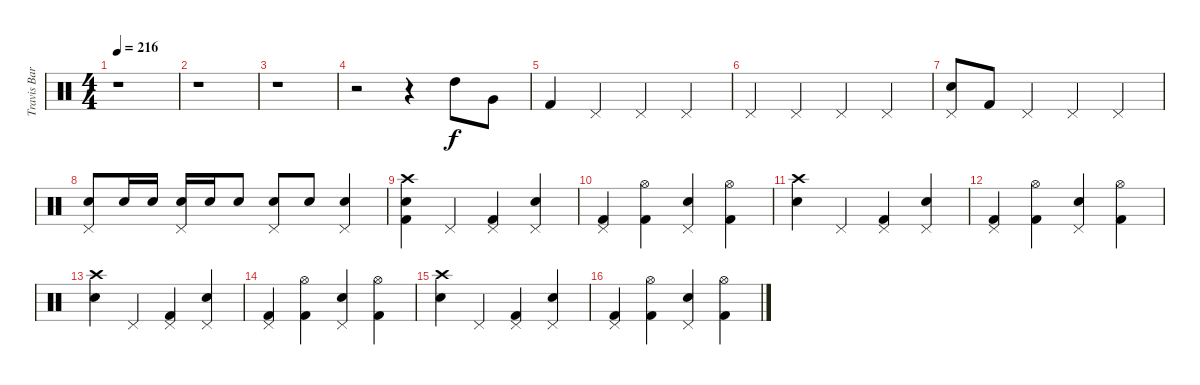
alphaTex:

\track ("Travis Barker (Drums)" "Travis Bar") {instrument percussion}
\staff {score}
\articulation defaults
\ts (4 4)
\tempo 216
\clef neutral
\ks c
r.1{dy f} |
r.1 |
r.1 |
r.2 r.4 "High Tom (hit)".8 "Very Low Tom (hit)".8 |
"Kick (hit) 2".4 "Pedal Hi-Hat (hit)".4 "Pedal Hi-Hat (hit)".4 "Pedal Hi-Hat (hit)".4 |
"Pedal Hi-Hat (hit)".4 "Pedal Hi-Hat (hit)".4 "Pedal Hi-Hat (hit)".4 "Pedal Hi-Hat (hit)".4 |
("Pedal Hi-Hat (hit)" "Electric Snare (hit)").8 "Kick (hit) 2".8 "Pedal Hi-Hat (hit)".4 "Pedal Hi-Hat (hit)".4 "Pedal Hi-Hat (hit)".4 |
("Pedal Hi-Hat (hit)" "Electric Snare (hit)").8 "Electric Snare (hit)".16 "Electric Snare (hit)".16 ("Pedal Hi-Hat (hit)" "Electric Snare (hit)").16 "Electric Snare (hit)".16 "Electric Snare (hit)".8 ("Pedal Hi-Hat (hit)" "Electric Snare (hit)").8 "Electric Snare (hit)".8 ("Pedal Hi-Hat (hit)" "Electric Snare (hit)").4 |
("Crash high (hit)" "Electric Snare (hit)" "Kick (hit) 2").4 "Pedal Hi-Hat (hit)".4 ("Pedal Hi-Hat (hit)" "Kick (hit) 2").4 ("Pedal Hi-Hat (hit)" "Electric Snare (hit)").4 |
("Pedal Hi-Hat (hit)" "Kick (hit) 2").4 ("Hi-Hat (open)" "Kick (hit) 2").4 ("Pedal Hi-Hat (hit)" "Electric Snare (hit)").4 ("Hi-Hat (open)" "Kick (hit) 2").4 |
("Crash high (hit)" "Electric Snare (hit)").4 "Pedal Hi-Hat (hit)".4 ("Pedal Hi-Hat (hit)" "Kick (hit) 2").4 ("Pedal Hi-Hat (hit)" "Electric Snare (hit)").4 |
("Pedal Hi-Hat (hit)" "Kick (hit) 2").4 ("Hi-Hat (open)" "Kick (hit) 2").4 ("Pedal Hi-Hat (hit)" "Electric Snare (hit)").4 ("Hi-Hat (open)" "Kick (hit) 2").4 |
("Crash high (hit)" "Electric Snare (hit)").4 "Pedal Hi-Hat (hit)".4 ("Pedal Hi-Hat (hit)" "Kick (hit) 2").4 ("Pedal Hi-Hat (hit)" "Electric Snare (hit)").4 |
("Pedal Hi-Hat (hit)" "Kick (hit) 2").4 ("Hi-Hat (open)" "Kick (hit) 2").4 ("Pedal Hi-Hat (hit)" "Electric Snare (hit)").4 ("Hi-Hat (open)" "Kick (hit) 2").4 |
("Crash high (hit)" "Electric Snare (hit)").4 "Pedal Hi-Hat (hit)".4 ("Pedal Hi-Hat (hit)" "Kick (hit) 2").4 ("Pedal Hi-Hat (hit)" "Electric Snare (hit)").4 |
("Pedal Hi-Hat (hit)" "Kick (hit) 2").4 ("Hi-Hat (open)" "Kick (hit) 2").4 ("Pedal Hi-Hat (hit)" "Electric Snare (hit)").4 ("Hi-Hat (open)" "Kick (hit) 2").4
